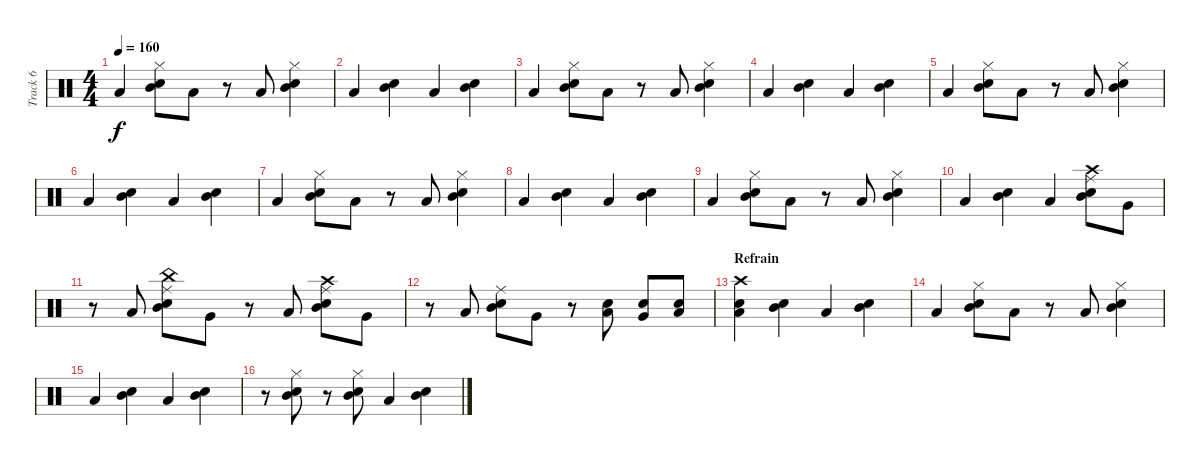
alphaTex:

\track ("Track 6" "Track 6") {instrument percussion}
\staff {score}
\articulation defaults
\ts (4 4)
\tempo 160
\clef neutral
\ks c "Low Tom (hit)".4{dy f}
("Mid Tom (hit)" "Hi-Hat (closed)" "Snare (hit) 2").8 "Low Tom (hit)".8 r.8 "Low Tom (hit)".8 ("Mid Tom (hit)" "Hi-Hat (closed)" "Snare (hit) 2").4 |
"Low Tom (hit)".4 ("Mid Tom (hit)" "Snare (hit) 2").4 "Low Tom (hit)".4 ("Mid Tom (hit)" "Snare (hit) 2").4 |
"Low Tom (hit)".4 ("Mid Tom (hit)" "Hi-Hat (closed)" "Snare (hit) 2").8 "Low Tom (hit)".8 r.8 "Low Tom (hit)".8 ("Mid Tom (hit)" "Hi-Hat (closed)" "Snare (hit) 2").4 |
"Low Tom (hit)".4 ("Mid Tom (hit)" "Snare (hit) 2").4 "Low Tom (hit)".4 ("Mid Tom (hit)" "Snare (hit) 2").4 |
"Low Tom (hit)".4 ("Mid Tom (hit)" "Hi-Hat (closed)" "Snare (hit) 2").8 "Low Tom (hit)".8 r.8 "Low Tom (hit)".8 ("Mid Tom (hit)" "Hi-Hat (closed)" "Snare (hit) 2").4 |
"Low Tom (hit)".4 ("Mid Tom (hit)" "Snare (hit) 2").4 "Low Tom (hit)".4 ("Mid Tom (hit)" "Snare (hit) 2").4 |
"Low Tom (hit)".4 ("Mid Tom (hit)" "Hi-Hat (closed)" "Snare (hit) 2").8 "Low Tom (hit)".8 r.8 "Low Tom (hit)".8 ("Mid Tom (hit)" "Hi-Hat (closed)" "Snare (hit) 2").4 |
"Low Tom (hit)".4 ("Mid Tom (hit)" "Snare (hit) 2").4 "Low Tom (hit)".4 ("Mid Tom (hit)" "Snare (hit) 2").4 |
"Low Tom (hit)".4 ("Mid Tom (hit)" "Hi-Hat (closed)" "Snare (hit) 2").8 "Low Tom (hit)".8 r.8 "Low Tom (hit)".8 ("Mid Tom (hit)" "Hi-Hat (closed)" "Snare (hit) 2").4 |
"Low Tom (hit)".4 ("Mid Tom (hit)" "Snare (hit) 2").4 "Low Tom (hit)".4 ("Mid Tom (hit)" "Snare (hit) 2" "Ride (middle)" "Crash high (hit)").8 "Very Low Tom (hit)".8 |
r.8 "Low Tom (hit)".8 ("Mid Tom (hit)" "Snare (hit) 2" "Ride (middle)" "China (hit)").8 "Very Low Tom (hit)".8 r.8 "Low Tom (hit)".8 ("Mid Tom (hit)" "Snare (hit) 2" "Ride (middle)" "Crash high (hit)").8 "Very Low Tom (hit)".8 |
r.8 "Low Tom (hit)".8 ("Mid Tom (hit)" "Snare (hit) 2" "Ride (middle)").8 "Very Low Tom (hit)".8 r.8 ("Low Floor Tom (hit)" "Snare (hit) 2").8 ("Very Low Tom (hit)" "Snare (hit) 2").8 ("Low Tom (hit)" "Snare (hit) 2").8 |
\section ("" "Refrain")
("Low Tom (hit)" "Snare (hit) 2" "Crash high (hit)").4 ("Mid Tom (hit)" "Snare (hit) 2").4 "Low Tom (hit)".4 ("Mid Tom (hit)" "Snare (hit) 2").4 |
"Low Tom (hit)".4 ("Mid Tom (hit)" "Hi-Hat (closed)" "Snare (hit) 2").8 "Low Tom (hit)".8 r.8 "Low Tom (hit)".8 ("Mid Tom (hit)" "Hi-Hat (closed)" "Snare (hit) 2").4 |
"Low Tom (hit)".4 ("Mid Tom (hit)" "Snare (hit) 2").4 "Low Tom (hit)".4 ("Mid Tom (hit)" "Snare (hit) 2").4 |
r.8 ("Mid Tom (hit)" "Hi-Hat (closed)" "Snare (hit) 2").8 r.8 ("Mid Tom (hit)" "Hi-Hat (closed)" "Snare (hit) 2").8 "Low Tom (hit)".4 ("Mid Tom (hit)" "Snare (hit) 2").4
